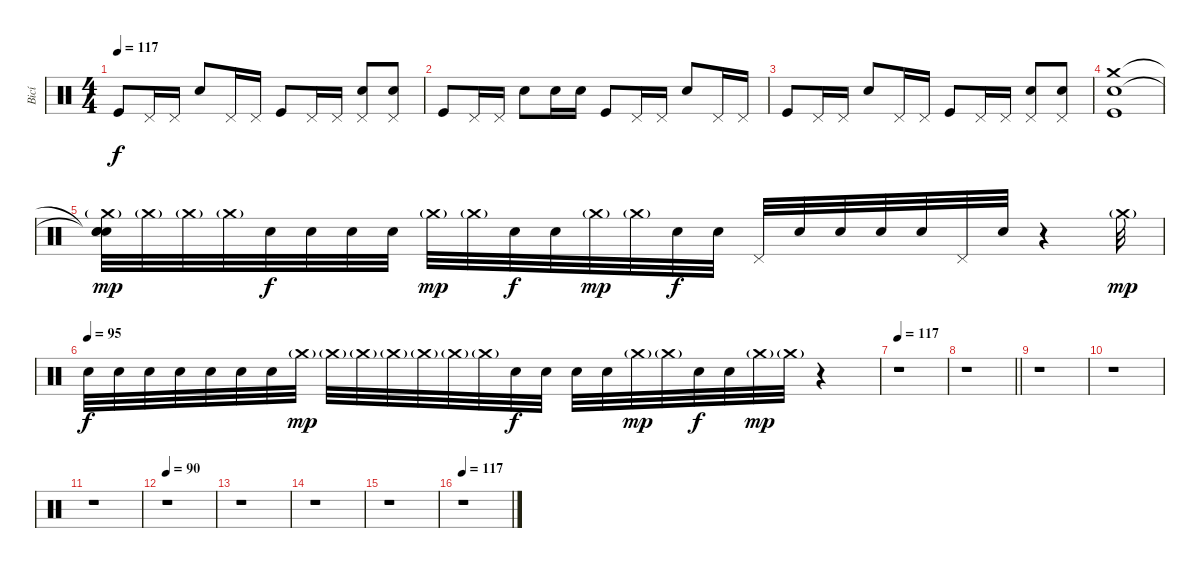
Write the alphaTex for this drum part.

\track ("Bicí" "Bicí") {instrument percussion}
\staff {score}
\articulation defaults
\ts (4 4)
\tempo 117
\clef neutral
\ks c "Kick (hit)".8{dy f} "Pedal Hi-Hat (hit)".16 "Pedal Hi-Hat (hit)".16 "Electric Snare (hit)".8 "Pedal Hi-Hat (hit)".16 "Pedal Hi-Hat (hit)".16 "Kick (hit)".8 "Pedal Hi-Hat (hit)".16 "Pedal Hi-Hat (hit)".16
("Pedal Hi-Hat (hit)" "Electric Snare (hit)").8 ("Pedal Hi-Hat (hit)" "Electric Snare (hit)").8 |
"Kick (hit)".8 "Pedal Hi-Hat (hit)".16 "Pedal Hi-Hat (hit)".16 "Electric Snare (hit)".8 "Electric Snare (hit)".16 "Electric Snare (hit)".16 "Kick (hit)".8 "Pedal Hi-Hat (hit)".16 "Pedal Hi-Hat (hit)".16 "Electric Snare (hit)".8 "Pedal Hi-Hat (hit)".16 "Pedal Hi-Hat (hit)".16 |
"Kick (hit)".8 "Pedal Hi-Hat (hit)".16 "Pedal Hi-Hat (hit)".16 "Electric Snare (hit)".8 "Pedal Hi-Hat (hit)".16 "Pedal Hi-Hat (hit)".16 "Kick (hit)".8 "Pedal Hi-Hat (hit)".16 "Pedal Hi-Hat (hit)".16 ("Pedal Hi-Hat (hit)" "Electric Snare (hit)").8 ("Pedal Hi-Hat (hit)" "Electric Snare (hit)").8 |
("Kick (hit)" "Crash medium (hit)" "Electric Snare (hit)").1 |
("Crash medium (hit)"{g} "Snare (hit)"{t} "Snare (hit)"{t} "Snare (hit)").32{dy mp} "Crash medium (hit)"{g}.32 "Crash medium (hit)"{g}.32 "Crash medium (hit)"{g}.32 "Snare (hit)".32{dy f} "Snare (hit)".32 "Snare (hit)".32 "Snare (hit)".32 "Crash medium (hit)"{g}.32{dy mp} "Crash medium (hit)"{g}.32 "Snare (hit)".32{dy f} "Snare (hit)".32 "Crash medium (hit)"{g}.32{dy mp} "Crash medium (hit)"{g}.32 "Snare (hit)".32{dy f} "Snare (hit)".32 "Pedal Hi-Hat (hit)".32 "Snare (hit)".32 "Snare (hit)".32 "Snare (hit)".32 "Snare (hit)".32 "Pedal Hi-Hat (hit)".32 "Snare (hit)".32 r.4 "Crash medium (hit)"{g}.32{dy mp} |
\tempo (95)
"Snare (hit)".32{dy f} "Snare (hit)".32 "Snare (hit)".32 "Snare (hit)".32 "Snare (hit)".32 "Snare (hit)".32 "Snare (hit)".32 "Crash medium (hit)"{g}.32{dy mp} "Crash medium (hit)"{g}.32 "Crash medium (hit)"{g}.32 "Crash medium (hit)"{g}.32 "Crash medium (hit)"{g}.32 "Crash medium (hit)"{g}.32 "Crash medium (hit)"{g}.32 "Snare (hit)".32{dy f} "Snare (hit)".32 "Snare (hit)".32 "Snare (hit)".32 "Crash medium (hit)"{g}.32{dy mp} "Crash medium (hit)"{g}.32 "Snare (hit)".32{dy f} "Snare (hit)".32 "Crash medium (hit)"{g}.32{dy mp} "Crash medium (hit)"{g}.32 r.4 |
\tempo 117
r.1 |
\barLineRight lightlight
r.1 |
\section ("" "")
r.1 |
r.1 |
r.1 |
\tempo 90
r.1 |
r.1 |
r.1 |
r.1 |
\tempo 117
r.1
